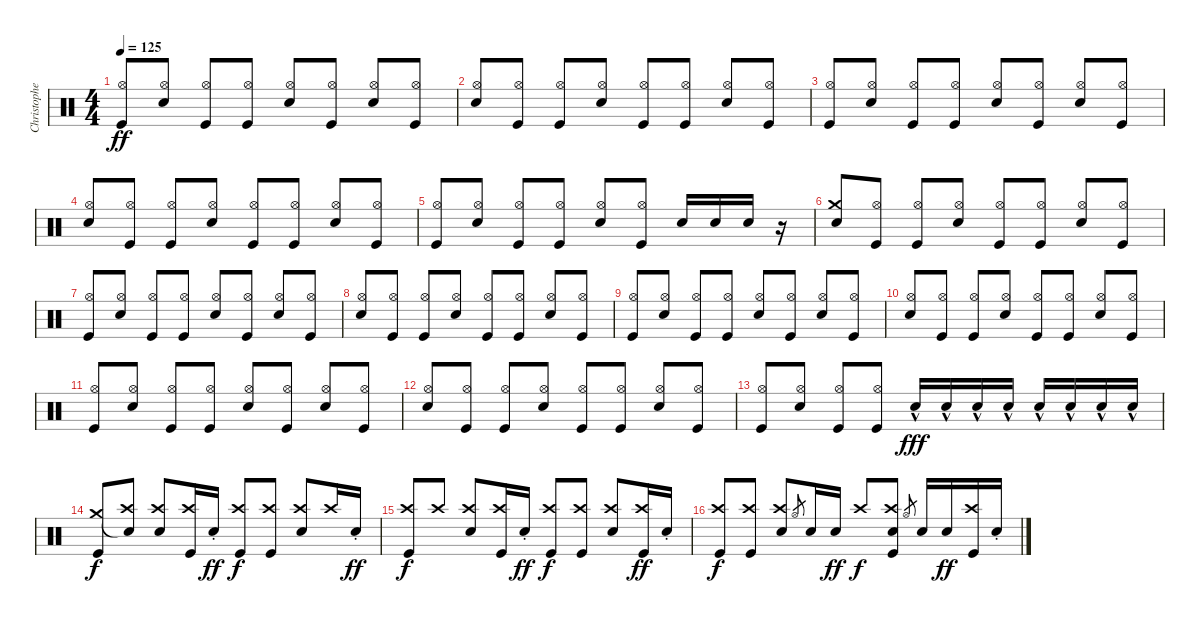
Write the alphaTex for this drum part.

\track ("Christopher Guanlao - Drums" "Christophe") {instrument percussion}
\staff {score}
\articulation defaults
\ts (4 4)
\tempo 125
\clef neutral
\ks c
("Hi-Hat (open)" "Kick (hit)").8{dy ff beam Up} ("Hi-Hat (open)" "Electric Snare (hit)").8{beam Up} ("Hi-Hat (open)" "Kick (hit)").8{beam Up} ("Hi-Hat (open)" "Kick (hit)").8{beam Up} ("Hi-Hat (open)" "Electric Snare (hit)").8{beam Up} ("Hi-Hat (open)" "Kick (hit)").8{beam Up} ("Hi-Hat (open)" "Electric Snare (hit)").8{beam Up} ("Hi-Hat (open)" "Kick (hit)").8{beam Up} |
("Hi-Hat (open)" "Electric Snare (hit)").8{beam Up} ("Hi-Hat (open)" "Kick (hit)").8{beam Up} ("Hi-Hat (open)" "Kick (hit)").8{beam Up} ("Hi-Hat (open)" "Electric Snare (hit)").8{beam Up} ("Hi-Hat (open)" "Kick (hit)").8{beam Up} ("Hi-Hat (open)" "Kick (hit)").8{beam Up} ("Hi-Hat (open)" "Electric Snare (hit)").8{beam Up} ("Hi-Hat (open)" "Kick (hit)").8{beam Up} |
("Hi-Hat (open)" "Kick (hit)").8{beam Up} ("Hi-Hat (open)" "Electric Snare (hit)").8{beam Up} ("Hi-Hat (open)" "Kick (hit)").8{beam Up} ("Hi-Hat (open)" "Kick (hit)").8{beam Up} ("Hi-Hat (open)" "Electric Snare (hit)").8{beam Up} ("Hi-Hat (open)" "Kick (hit)").8{beam Up} ("Hi-Hat (open)" "Electric Snare (hit)").8{beam Up} ("Hi-Hat (open)" "Kick (hit)").8{beam Up} |
("Hi-Hat (open)" "Electric Snare (hit)").8{beam Up} ("Hi-Hat (open)" "Kick (hit)").8{beam Up} ("Hi-Hat (open)" "Kick (hit)").8{beam Up} ("Hi-Hat (open)" "Electric Snare (hit)").8{beam Up} ("Hi-Hat (open)" "Kick (hit)").8{beam Up} ("Hi-Hat (open)" "Kick (hit)").8{beam Up} ("Hi-Hat (open)" "Electric Snare (hit)").8{beam Up} ("Hi-Hat (open)" "Kick (hit)").8{beam Up} |
("Hi-Hat (open)" "Kick (hit)").8{beam Up} ("Hi-Hat (open)" "Electric Snare (hit)").8{beam Up} ("Hi-Hat (open)" "Kick (hit)").8{beam Up} ("Hi-Hat (open)" "Kick (hit)").8{beam Up} ("Hi-Hat (open)" "Electric Snare (hit)").8{beam Up} ("Hi-Hat (open)" "Kick (hit)").8{beam Up} "Electric Snare (hit)".16{beam Up} "Electric Snare (hit)".16{beam Up} "Electric Snare (hit)".16{beam Up} r.16 |
("Crash medium (hit)" "Electric Snare (hit)").8{beam Up} ("Hi-Hat (open)" "Kick (hit)").8{beam Up} ("Hi-Hat (open)" "Kick (hit)").8{beam Up} ("Hi-Hat (open)" "Electric Snare (hit)").8{beam Up} ("Hi-Hat (open)" "Kick (hit)").8{beam Up} ("Hi-Hat (open)" "Kick (hit)").8{beam Up} ("Hi-Hat (open)" "Electric Snare (hit)").8{beam Up} ("Hi-Hat (open)" "Kick (hit)").8{beam Up} |
("Hi-Hat (open)" "Kick (hit)").8{beam Up} ("Hi-Hat (open)" "Electric Snare (hit)").8{beam Up} ("Hi-Hat (open)" "Kick (hit)").8{beam Up} ("Hi-Hat (open)" "Kick (hit)").8{beam Up} ("Hi-Hat (open)" "Electric Snare (hit)").8{beam Up} ("Hi-Hat (open)" "Kick (hit)").8{beam Up} ("Hi-Hat (open)" "Electric Snare (hit)").8{beam Up} ("Hi-Hat (open)" "Kick (hit)").8{beam Up} |
("Hi-Hat (open)" "Electric Snare (hit)").8{beam Up} ("Hi-Hat (open)" "Kick (hit)").8{beam Up} ("Hi-Hat (open)" "Kick (hit)").8{beam Up} ("Hi-Hat (open)" "Electric Snare (hit)").8{beam Up} ("Hi-Hat (open)" "Kick (hit)").8{beam Up} ("Hi-Hat (open)" "Kick (hit)").8{beam Up} ("Hi-Hat (open)" "Electric Snare (hit)").8{beam Up} ("Hi-Hat (open)" "Kick (hit)").8{beam Up} |
("Hi-Hat (open)" "Kick (hit)").8{beam Up} ("Hi-Hat (open)" "Electric Snare (hit)").8{beam Up} ("Hi-Hat (open)" "Kick (hit)").8{beam Up} ("Hi-Hat (open)" "Kick (hit)").8{beam Up} ("Hi-Hat (open)" "Electric Snare (hit)").8{beam Up} ("Hi-Hat (open)" "Kick (hit)").8{beam Up} ("Hi-Hat (open)" "Electric Snare (hit)").8{beam Up} ("Hi-Hat (open)" "Kick (hit)").8{beam Up} |
("Hi-Hat (open)" "Electric Snare (hit)").8{beam Up} ("Hi-Hat (open)" "Kick (hit)").8{beam Up} ("Hi-Hat (open)" "Kick (hit)").8{beam Up} ("Hi-Hat (open)" "Electric Snare (hit)").8{beam Up} ("Hi-Hat (open)" "Kick (hit)").8{beam Up} ("Hi-Hat (open)" "Kick (hit)").8{beam Up} ("Hi-Hat (open)" "Electric Snare (hit)").8{beam Up} ("Hi-Hat (open)" "Kick (hit)").8{beam Up} |
("Hi-Hat (open)" "Kick (hit)").8{beam Up} ("Hi-Hat (open)" "Electric Snare (hit)").8{beam Up} ("Hi-Hat (open)" "Kick (hit)").8{beam Up} ("Hi-Hat (open)" "Kick (hit)").8{beam Up} ("Hi-Hat (open)" "Electric Snare (hit)").8{beam Up} ("Hi-Hat (open)" "Kick (hit)").8{beam Up} ("Hi-Hat (open)" "Electric Snare (hit)").8{beam Up} ("Hi-Hat (open)" "Kick (hit)").8{beam Up} |
("Hi-Hat (open)" "Electric Snare (hit)").8{beam Up} ("Hi-Hat (open)" "Kick (hit)").8{beam Up} ("Hi-Hat (open)" "Kick (hit)").8{beam Up} ("Hi-Hat (open)" "Electric Snare (hit)").8{beam Up} ("Hi-Hat (open)" "Kick (hit)").8{beam Up} ("Hi-Hat (open)" "Kick (hit)").8{beam Up} ("Hi-Hat (open)" "Electric Snare (hit)").8{beam Up} ("Hi-Hat (open)" "Kick (hit)").8{beam Up} |
("Hi-Hat (open)" "Kick (hit)").8{beam Up} ("Hi-Hat (open)" "Electric Snare (hit)").8{beam Up} ("Hi-Hat (open)" "Kick (hit)").8{beam Up} ("Hi-Hat (open)" "Kick (hit)").8{beam Up} "Electric Snare (hit)"{hac}.16{dy fff beam Up} "Electric Snare (hit)"{hac}.16{beam Up} "Electric Snare (hit)"{hac}.16{beam Up} "Electric Snare (hit)"{hac}.16{beam Up} "Electric Snare (hit)"{hac}.16{beam Up} "Electric Snare (hit)"{hac}.16{beam Up} "Electric Snare (hit)"{hac}.16{beam Up} "Electric Snare (hit)"{hac}.16{beam Up} |
("Crash medium (hit)" "Kick (hit)").8{dy f beam Up} ("Snare (hit)"{t} "Crash high (hit)").8{beam Up} ("Crash high (hit)" "Electric Snare (hit)").8{beam Up} ("Crash high (hit)" "Kick (hit)").16{beam Up} "Electric Snare (hit)"{st}.16{dy ff beam Up} ("Crash high (hit)" "Kick (hit)").8{dy f beam Up} ("Crash high (hit)" "Kick (hit)").8{beam Up} ("Crash high (hit)" "Electric Snare (hit)").8{beam Up} "Crash high (hit)".16{beam Up} "Electric Snare (hit)"{st}.16{dy ff beam Up} |
("Crash high (hit)" "Kick (hit)").8{dy f beam Up} "Crash high (hit)".8{beam Up} ("Crash high (hit)" "Electric Snare (hit)").8{beam Up} ("Crash high (hit)" "Kick (hit)").16{beam Up} "Electric Snare (hit)"{st}.16{dy ff beam Up} ("Crash high (hit)" "Kick (hit)").8{dy f beam Up} ("Crash high (hit)" "Kick (hit)").8{beam Up} ("Crash high (hit)" "Electric Snare (hit)").8{beam Up} ("Crash high (hit)" "Kick (hit)").16{dy ff beam Up} "Electric Snare (hit)"{st}.16{beam Up} |
("Crash high (hit)" "Kick (hit)").8{dy f beam Up} ("Crash high (hit)" "Kick (hit)").8{beam Up} ("Crash high (hit)" "Electric Snare (hit)").8{beam Up} "Hi-Hat (open)".8{gr} "Electric Snare (hit)".16{beam Up} "Electric Snare (hit)".16{dy ff beam Up} "Crash high (hit)".8{dy f beam Up} ("Crash high (hit)" "Electric Snare (hit)" "Kick (hit)").8{beam Up} "Hi-Hat (open)".8{gr} "Electric Snare (hit)".16{beam Up} "Electric Snare (hit)".16{dy ff beam Up} ("Crash high (hit)" "Kick (hit)").16{beam Up} "Electric Snare (hit)"{st}.16{beam Up}
